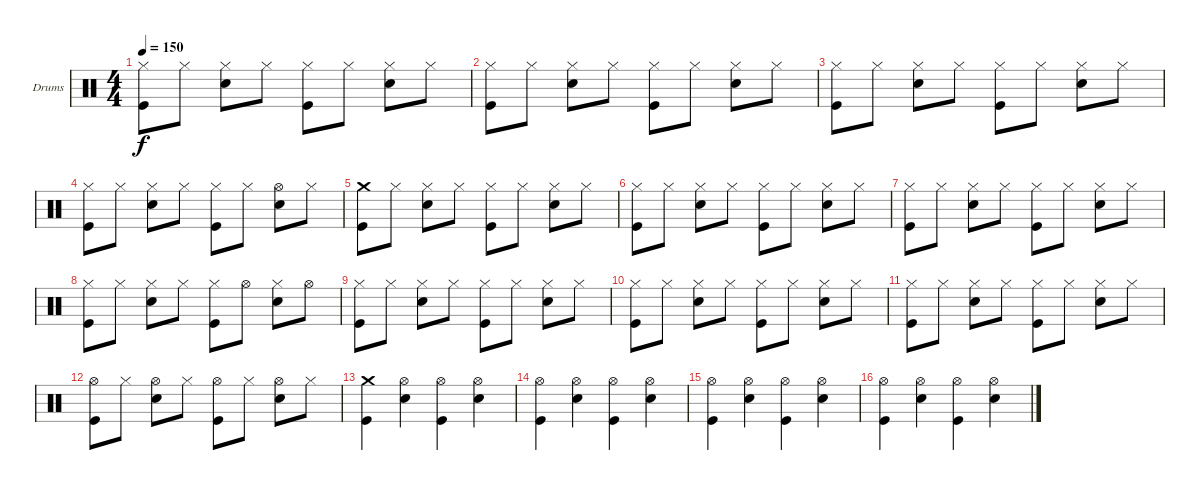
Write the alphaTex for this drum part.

\bracketExtendMode groupsimilarinstruments
\firstSystemTrackNameOrientation horizontal
\otherSystemsTrackNameOrientation horizontal
\track ("Drumkit" "Drums") {instrument percussion}
\staff {score}
\articulation defaults
\ts (4 4)
\tempo 150
\clef neutral
\ks c
("Hi-Hat (closed)" "Kick (hit)").8{dy f} "Hi-Hat (closed)".8 ("Hi-Hat (closed)" "Snare (hit) 2").8 "Hi-Hat (closed)".8 ("Hi-Hat (closed)" "Kick (hit)").8 "Hi-Hat (closed)".8 ("Hi-Hat (closed)" "Snare (hit) 2").8 "Hi-Hat (closed)".8 |
("Hi-Hat (closed)" "Kick (hit)").8 "Hi-Hat (closed)".8 ("Hi-Hat (closed)" "Snare (hit) 2").8 "Hi-Hat (closed)".8 ("Hi-Hat (closed)" "Kick (hit)").8 "Hi-Hat (closed)".8 ("Hi-Hat (closed)" "Snare (hit) 2").8 "Hi-Hat (closed)".8 |
("Hi-Hat (closed)" "Kick (hit)").8 "Hi-Hat (closed)".8 ("Hi-Hat (closed)" "Snare (hit) 2").8 "Hi-Hat (closed)".8 ("Hi-Hat (closed)" "Kick (hit)").8 "Hi-Hat (closed)".8 ("Hi-Hat (closed)" "Snare (hit) 2").8 "Hi-Hat (closed)".8 |
("Hi-Hat (closed)" "Kick (hit)").8 "Hi-Hat (closed)".8 ("Hi-Hat (closed)" "Snare (hit) 2").8 "Hi-Hat (closed)".8 ("Hi-Hat (closed)" "Kick (hit)").8 "Hi-Hat (closed)".8 ("Hi-Hat (open)" "Snare (hit) 2").8 "Hi-Hat (closed)".8 |
("Crash medium (hit)" "Kick (hit)").8 "Hi-Hat (closed)".8 ("Hi-Hat (closed)" "Snare (hit) 2").8 "Hi-Hat (closed)".8 ("Hi-Hat (closed)" "Kick (hit)").8 "Hi-Hat (closed)".8 ("Hi-Hat (closed)" "Snare (hit) 2").8 "Hi-Hat (closed)".8 |
("Hi-Hat (closed)" "Kick (hit)").8 "Hi-Hat (closed)".8 ("Hi-Hat (closed)" "Snare (hit) 2").8 "Hi-Hat (closed)".8 ("Hi-Hat (closed)" "Kick (hit)").8 "Hi-Hat (closed)".8 ("Hi-Hat (closed)" "Snare (hit) 2").8 "Hi-Hat (closed)".8 |
("Hi-Hat (closed)" "Kick (hit)").8 "Hi-Hat (closed)".8 ("Hi-Hat (closed)" "Snare (hit) 2").8 "Hi-Hat (closed)".8 ("Hi-Hat (closed)" "Kick (hit)").8 "Hi-Hat (closed)".8 ("Hi-Hat (closed)" "Snare (hit) 2").8 "Hi-Hat (closed)".8 |
("Hi-Hat (closed)" "Kick (hit)").8 "Hi-Hat (closed)".8 ("Hi-Hat (closed)" "Snare (hit) 2").8 "Hi-Hat (closed)".8 ("Hi-Hat (closed)" "Kick (hit)").8 "Hi-Hat (open)".8 ("Hi-Hat (closed)" "Snare (hit) 2").8 "Hi-Hat (open)".8 |
("Hi-Hat (closed)" "Kick (hit)").8 "Hi-Hat (closed)".8 ("Hi-Hat (closed)" "Snare (hit) 2").8 "Hi-Hat (closed)".8 ("Hi-Hat (closed)" "Kick (hit)").8 "Hi-Hat (closed)".8 ("Hi-Hat (closed)" "Snare (hit) 2").8 "Hi-Hat (closed)".8 |
("Hi-Hat (closed)" "Kick (hit)").8 "Hi-Hat (closed)".8 ("Hi-Hat (closed)" "Snare (hit) 2").8 "Hi-Hat (closed)".8 ("Hi-Hat (closed)" "Kick (hit)").8 "Hi-Hat (closed)".8 ("Hi-Hat (closed)" "Snare (hit) 2").8 "Hi-Hat (closed)".8 |
("Hi-Hat (closed)" "Kick (hit)").8 "Hi-Hat (closed)".8 ("Hi-Hat (closed)" "Snare (hit) 2").8 "Hi-Hat (closed)".8 ("Hi-Hat (closed)" "Kick (hit)").8 "Hi-Hat (closed)".8 ("Hi-Hat (closed)" "Snare (hit) 2").8 "Hi-Hat (closed)".8 |
("Hi-Hat (open)" "Kick (hit)").8 "Hi-Hat (closed)".8 ("Hi-Hat (open)" "Snare (hit) 2").8 "Hi-Hat (closed)".8 ("Hi-Hat (open)" "Kick (hit)").8 "Hi-Hat (closed)".8 ("Hi-Hat (open)" "Snare (hit) 2").8 "Hi-Hat (closed)".8 |
("Crash medium (hit)" "Kick (hit)").4 ("Hi-Hat (open)" "Snare (hit) 2").4 ("Hi-Hat (open)" "Kick (hit)").4 ("Hi-Hat (open)" "Snare (hit) 2").4 |
("Hi-Hat (open)" "Kick (hit)").4 ("Hi-Hat (open)" "Snare (hit) 2").4 ("Hi-Hat (open)" "Kick (hit)").4 ("Hi-Hat (open)" "Snare (hit) 2").4 |
("Hi-Hat (open)" "Kick (hit)").4 ("Hi-Hat (open)" "Snare (hit) 2").4 ("Hi-Hat (open)" "Kick (hit)").4 ("Hi-Hat (open)" "Snare (hit) 2").4 |
("Hi-Hat (open)" "Kick (hit)").4 ("Hi-Hat (open)" "Snare (hit) 2").4 ("Hi-Hat (open)" "Kick (hit)").4 ("Hi-Hat (open)" "Snare (hit) 2").4
